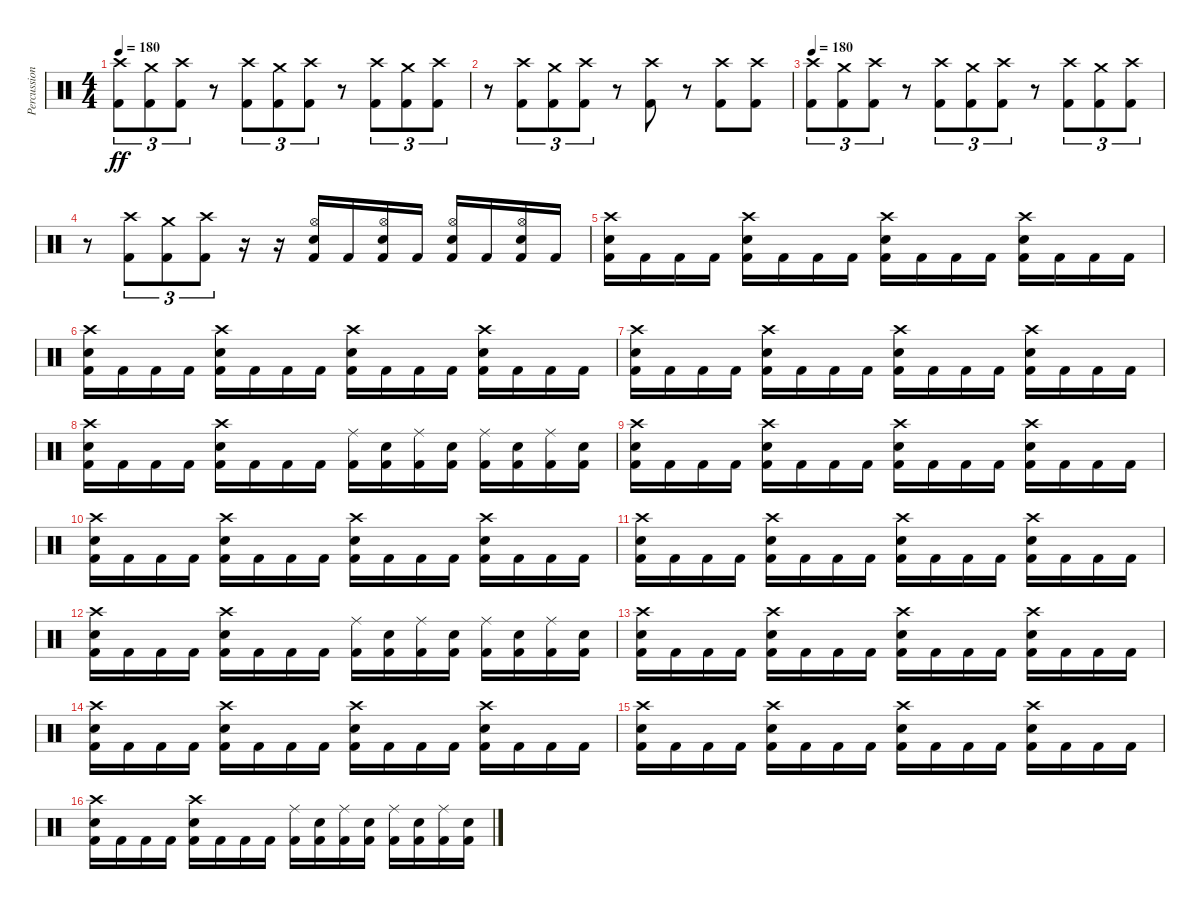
\track ("Percussion" "Percussion") {instrument percussion}
\staff {score}
\articulation defaults
\ts (4 4)
\tempo 180
\clef neutral
\ks c
("Crash high (hit)" "Kick (hit) 2").8{tu (3 2) dy ff} ("Crash medium (hit)" "Kick (hit) 2").8{tu (3 2)} ("Crash high (hit)" "Kick (hit) 2").8{tu (3 2)} r.8 ("Crash high (hit)" "Kick (hit) 2").8{tu (3 2)} ("Crash medium (hit)" "Kick (hit) 2").8{tu (3 2)} ("Crash high (hit)" "Kick (hit) 2").8{tu (3 2)} r.8 ("Crash high (hit)" "Kick (hit) 2").8{tu (3 2)} ("Crash medium (hit)" "Kick (hit) 2").8{tu (3 2)} ("Crash high (hit)" "Kick (hit) 2").8{tu (3 2)} |
r.8 ("Crash high (hit)" "Kick (hit) 2").8{tu (3 2)} ("Crash medium (hit)" "Kick (hit) 2").8{tu (3 2)} ("Crash high (hit)" "Kick (hit) 2").8{tu (3 2)} r.8 ("Crash high (hit)" "Kick (hit) 2").8 r.8 ("Crash high (hit)" "Kick (hit) 2").8 ("Crash high (hit)" "Kick (hit) 2").8 |
\tempo 180
("Crash high (hit)" "Kick (hit) 2").8{tu (3 2)} ("Crash medium (hit)" "Kick (hit) 2").8{tu (3 2)} ("Crash high (hit)" "Kick (hit) 2").8{tu (3 2)} r.8 ("Crash high (hit)" "Kick (hit) 2").8{tu (3 2)} ("Crash medium (hit)" "Kick (hit) 2").8{tu (3 2)} ("Crash high (hit)" "Kick (hit) 2").8{tu (3 2)} r.8 ("Crash high (hit)" "Kick (hit) 2").8{tu (3 2)} ("Crash medium (hit)" "Kick (hit) 2").8{tu (3 2)} ("Crash high (hit)" "Kick (hit) 2").8{tu (3 2)} |
r.8 ("Crash high (hit)" "Kick (hit) 2").8{tu (3 2)} ("Crash medium (hit)" "Kick (hit) 2").8{tu (3 2)} ("Crash high (hit)" "Kick (hit) 2").8{tu (3 2)} r.16 r.16 ("Hi-Hat (open)" "Electric Snare (hit)" "Kick (hit) 2").16 "Kick (hit) 2".16 ("Hi-Hat (open)" "Electric Snare (hit)" "Kick (hit) 2").16 "Kick (hit) 2".16 ("Hi-Hat (open)" "Electric Snare (hit)" "Kick (hit) 2").16 "Kick (hit) 2".16 ("Hi-Hat (open)" "Electric Snare (hit)" "Kick (hit) 2").16 "Kick (hit) 2".16 |
("Crash high (hit)" "Electric Snare (hit)" "Kick (hit) 2").16 "Kick (hit) 2".16 "Kick (hit) 2".16 "Kick (hit) 2".16 ("Crash high (hit)" "Electric Snare (hit)" "Kick (hit) 2").16 "Kick (hit) 2".16 "Kick (hit) 2".16 "Kick (hit) 2".16 ("Crash high (hit)" "Electric Snare (hit)" "Kick (hit) 2").16 "Kick (hit) 2".16 "Kick (hit) 2".16 "Kick (hit) 2".16 ("Crash high (hit)" "Electric Snare (hit)" "Kick (hit) 2").16 "Kick (hit) 2".16 "Kick (hit) 2".16 "Kick (hit) 2".16 |
("Crash high (hit)" "Electric Snare (hit)" "Kick (hit) 2").16 "Kick (hit) 2".16 "Kick (hit) 2".16 "Kick (hit) 2".16 ("Crash high (hit)" "Electric Snare (hit)" "Kick (hit) 2").16 "Kick (hit) 2".16 "Kick (hit) 2".16 "Kick (hit) 2".16 ("Crash high (hit)" "Electric Snare (hit)" "Kick (hit) 2").16 "Kick (hit) 2".16 "Kick (hit) 2".16 "Kick (hit) 2".16 ("Crash high (hit)" "Electric Snare (hit)" "Kick (hit) 2").16 "Kick (hit) 2".16 "Kick (hit) 2".16 "Kick (hit) 2".16 |
("Crash high (hit)" "Electric Snare (hit)" "Kick (hit) 2").16 "Kick (hit) 2".16 "Kick (hit) 2".16 "Kick (hit) 2".16 ("Crash high (hit)" "Electric Snare (hit)" "Kick (hit) 2").16 "Kick (hit) 2".16 "Kick (hit) 2".16 "Kick (hit) 2".16 ("Crash high (hit)" "Electric Snare (hit)" "Kick (hit) 2").16 "Kick (hit) 2".16 "Kick (hit) 2".16 "Kick (hit) 2".16 ("Crash high (hit)" "Electric Snare (hit)" "Kick (hit) 2").16 "Kick (hit) 2".16 "Kick (hit) 2".16 "Kick (hit) 2".16 |
("Crash high (hit)" "Electric Snare (hit)" "Kick (hit) 2").16 "Kick (hit) 2".16 "Kick (hit) 2".16 "Kick (hit) 2".16 ("Crash high (hit)" "Electric Snare (hit)" "Kick (hit) 2").16 "Kick (hit) 2".16 "Kick (hit) 2".16 "Kick (hit) 2".16 ("Ride (middle)" "Kick (hit) 2").16 ("Electric Snare (hit)" "Kick (hit) 2").16 ("Ride (middle)" "Kick (hit) 2").16 ("Electric Snare (hit)" "Kick (hit) 2").16 ("Ride (middle)" "Kick (hit) 2").16 ("Electric Snare (hit)" "Kick (hit) 2").16 ("Ride (middle)" "Kick (hit) 2").16 ("Electric Snare (hit)" "Kick (hit) 2").16 |
("Crash high (hit)" "Electric Snare (hit)" "Kick (hit) 2").16 "Kick (hit) 2".16 "Kick (hit) 2".16 "Kick (hit) 2".16 ("Crash high (hit)" "Electric Snare (hit)" "Kick (hit) 2").16 "Kick (hit) 2".16 "Kick (hit) 2".16 "Kick (hit) 2".16 ("Crash high (hit)" "Electric Snare (hit)" "Kick (hit) 2").16 "Kick (hit) 2".16 "Kick (hit) 2".16 "Kick (hit) 2".16 ("Crash high (hit)" "Electric Snare (hit)" "Kick (hit) 2").16 "Kick (hit) 2".16 "Kick (hit) 2".16 "Kick (hit) 2".16 |
("Crash high (hit)" "Electric Snare (hit)" "Kick (hit) 2").16 "Kick (hit) 2".16 "Kick (hit) 2".16 "Kick (hit) 2".16 ("Crash high (hit)" "Electric Snare (hit)" "Kick (hit) 2").16 "Kick (hit) 2".16 "Kick (hit) 2".16 "Kick (hit) 2".16 ("Crash high (hit)" "Electric Snare (hit)" "Kick (hit) 2").16 "Kick (hit) 2".16 "Kick (hit) 2".16 "Kick (hit) 2".16 ("Crash high (hit)" "Electric Snare (hit)" "Kick (hit) 2").16 "Kick (hit) 2".16 "Kick (hit) 2".16 "Kick (hit) 2".16 |
("Crash high (hit)" "Electric Snare (hit)" "Kick (hit) 2").16 "Kick (hit) 2".16 "Kick (hit) 2".16 "Kick (hit) 2".16 ("Crash high (hit)" "Electric Snare (hit)" "Kick (hit) 2").16 "Kick (hit) 2".16 "Kick (hit) 2".16 "Kick (hit) 2".16 ("Crash high (hit)" "Electric Snare (hit)" "Kick (hit) 2").16 "Kick (hit) 2".16 "Kick (hit) 2".16 "Kick (hit) 2".16 ("Crash high (hit)" "Electric Snare (hit)" "Kick (hit) 2").16 "Kick (hit) 2".16 "Kick (hit) 2".16 "Kick (hit) 2".16 |
("Crash high (hit)" "Electric Snare (hit)" "Kick (hit) 2").16 "Kick (hit) 2".16 "Kick (hit) 2".16 "Kick (hit) 2".16 ("Crash high (hit)" "Electric Snare (hit)" "Kick (hit) 2").16 "Kick (hit) 2".16 "Kick (hit) 2".16 "Kick (hit) 2".16 ("Ride (middle)" "Kick (hit) 2").16 ("Electric Snare (hit)" "Kick (hit) 2").16 ("Ride (middle)" "Kick (hit) 2").16 ("Electric Snare (hit)" "Kick (hit) 2").16 ("Ride (middle)" "Kick (hit) 2").16 ("Electric Snare (hit)" "Kick (hit) 2").16 ("Ride (middle)" "Kick (hit) 2").16 ("Electric Snare (hit)" "Kick (hit) 2").16 |
("Crash high (hit)" "Electric Snare (hit)" "Kick (hit) 2").16 "Kick (hit) 2".16 "Kick (hit) 2".16 "Kick (hit) 2".16 ("Crash high (hit)" "Electric Snare (hit)" "Kick (hit) 2").16 "Kick (hit) 2".16 "Kick (hit) 2".16 "Kick (hit) 2".16 ("Crash high (hit)" "Electric Snare (hit)" "Kick (hit) 2").16 "Kick (hit) 2".16 "Kick (hit) 2".16 "Kick (hit) 2".16 ("Crash high (hit)" "Electric Snare (hit)" "Kick (hit) 2").16 "Kick (hit) 2".16 "Kick (hit) 2".16 "Kick (hit) 2".16 |
("Crash high (hit)" "Electric Snare (hit)" "Kick (hit) 2").16 "Kick (hit) 2".16 "Kick (hit) 2".16 "Kick (hit) 2".16 ("Crash high (hit)" "Electric Snare (hit)" "Kick (hit) 2").16 "Kick (hit) 2".16 "Kick (hit) 2".16 "Kick (hit) 2".16 ("Crash high (hit)" "Electric Snare (hit)" "Kick (hit) 2").16 "Kick (hit) 2".16 "Kick (hit) 2".16 "Kick (hit) 2".16 ("Crash high (hit)" "Electric Snare (hit)" "Kick (hit) 2").16 "Kick (hit) 2".16 "Kick (hit) 2".16 "Kick (hit) 2".16 |
("Crash high (hit)" "Electric Snare (hit)" "Kick (hit) 2").16 "Kick (hit) 2".16 "Kick (hit) 2".16 "Kick (hit) 2".16 ("Crash high (hit)" "Electric Snare (hit)" "Kick (hit) 2").16 "Kick (hit) 2".16 "Kick (hit) 2".16 "Kick (hit) 2".16 ("Crash high (hit)" "Electric Snare (hit)" "Kick (hit) 2").16 "Kick (hit) 2".16 "Kick (hit) 2".16 "Kick (hit) 2".16 ("Crash high (hit)" "Electric Snare (hit)" "Kick (hit) 2").16 "Kick (hit) 2".16 "Kick (hit) 2".16 "Kick (hit) 2".16 |
("Crash high (hit)" "Electric Snare (hit)" "Kick (hit) 2").16 "Kick (hit) 2".16 "Kick (hit) 2".16 "Kick (hit) 2".16 ("Crash high (hit)" "Electric Snare (hit)" "Kick (hit) 2").16 "Kick (hit) 2".16 "Kick (hit) 2".16 "Kick (hit) 2".16 ("Ride (middle)" "Kick (hit) 2").16 ("Electric Snare (hit)" "Kick (hit) 2").16 ("Ride (middle)" "Kick (hit) 2").16 ("Electric Snare (hit)" "Kick (hit) 2").16 ("Ride (middle)" "Kick (hit) 2").16 ("Electric Snare (hit)" "Kick (hit) 2").16 ("Ride (middle)" "Kick (hit) 2").16 ("Electric Snare (hit)" "Kick (hit) 2").16
